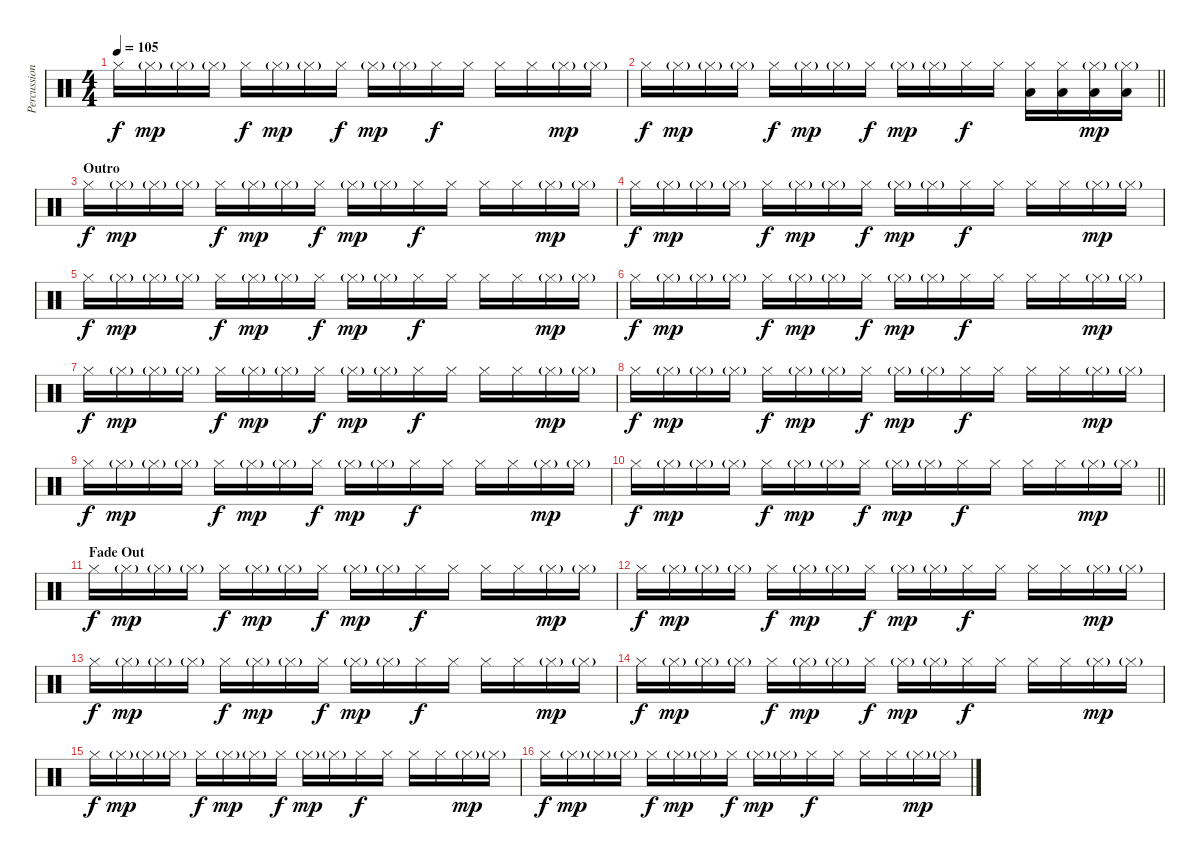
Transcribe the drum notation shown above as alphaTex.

\track ("Percussions and Arrangements" "Percussion") {instrument percussion}
\staff {score}
\articulation defaults
\ts (4 4)
\tempo 105
\clef neutral
\ks c "Hi-Hat (closed)".16{dy f} "Hi-Hat (closed)"{g}.16{dy mp} "Hi-Hat (closed)"{g}.16 "Hi-Hat (closed)"{g}.16 "Hi-Hat (closed)".16{dy f} "Hi-Hat (closed)"{g}.16{dy mp} "Hi-Hat (closed)"{g}.16 "Hi-Hat (closed)".16{dy f} "Hi-Hat (closed)"{g}.16{dy mp} "Hi-Hat (closed)"{g}.16 "Hi-Hat (closed)".16{dy f} "Hi-Hat (closed)".16 "Hi-Hat (closed)".16 "Hi-Hat (closed)".16 "Hi-Hat (closed)"{g}.16{dy mp} "Hi-Hat (closed)"{g}.16
|
\barLineRight lightlight "Hi-Hat (closed)".16{dy f} "Hi-Hat (closed)"{g}.16{dy mp} "Hi-Hat (closed)"{g}.16 "Hi-Hat (closed)"{g}.16 "Hi-Hat (closed)".16{dy f} "Hi-Hat (closed)"{g}.16{dy mp} "Hi-Hat (closed)"{g}.16 "Hi-Hat (closed)".16{dy f} "Hi-Hat (closed)"{g}.16{dy mp} "Hi-Hat (closed)"{g}.16 "Hi-Hat (closed)".16{dy f} "Hi-Hat (closed)".16
("Hi-Hat (closed)" "Low Tom (hit)").16 ("Hi-Hat (closed)" "Low Tom (hit)").16 ("Hi-Hat (closed)"{g} "Low Tom (hit)").16{dy mp} ("Hi-Hat (closed)"{g} "Low Tom (hit)").16 |
\section ("" "Outro")
"Hi-Hat (closed)".16{dy f} "Hi-Hat (closed)"{g}.16{dy mp} "Hi-Hat (closed)"{g}.16 "Hi-Hat (closed)"{g}.16 "Hi-Hat (closed)".16{dy f} "Hi-Hat (closed)"{g}.16{dy mp} "Hi-Hat (closed)"{g}.16 "Hi-Hat (closed)".16{dy f} "Hi-Hat (closed)"{g}.16{dy mp} "Hi-Hat (closed)"{g}.16 "Hi-Hat (closed)".16{dy f} "Hi-Hat (closed)".16 "Hi-Hat (closed)".16 "Hi-Hat (closed)".16 "Hi-Hat (closed)"{g}.16{dy mp} "Hi-Hat (closed)"{g}.16 |
"Hi-Hat (closed)".16{dy f} "Hi-Hat (closed)"{g}.16{dy mp} "Hi-Hat (closed)"{g}.16 "Hi-Hat (closed)"{g}.16 "Hi-Hat (closed)".16{dy f} "Hi-Hat (closed)"{g}.16{dy mp} "Hi-Hat (closed)"{g}.16 "Hi-Hat (closed)".16{dy f} "Hi-Hat (closed)"{g}.16{dy mp} "Hi-Hat (closed)"{g}.16 "Hi-Hat (closed)".16{dy f} "Hi-Hat (closed)".16 "Hi-Hat (closed)".16 "Hi-Hat (closed)".16 "Hi-Hat (closed)"{g}.16{dy mp} "Hi-Hat (closed)"{g}.16 |
"Hi-Hat (closed)".16{dy f} "Hi-Hat (closed)"{g}.16{dy mp} "Hi-Hat (closed)"{g}.16 "Hi-Hat (closed)"{g}.16 "Hi-Hat (closed)".16{dy f} "Hi-Hat (closed)"{g}.16{dy mp} "Hi-Hat (closed)"{g}.16 "Hi-Hat (closed)".16{dy f} "Hi-Hat (closed)"{g}.16{dy mp} "Hi-Hat (closed)"{g}.16 "Hi-Hat (closed)".16{dy f} "Hi-Hat (closed)".16 "Hi-Hat (closed)".16 "Hi-Hat (closed)".16 "Hi-Hat (closed)"{g}.16{dy mp} "Hi-Hat (closed)"{g}.16 |
"Hi-Hat (closed)".16{dy f} "Hi-Hat (closed)"{g}.16{dy mp} "Hi-Hat (closed)"{g}.16 "Hi-Hat (closed)"{g}.16 "Hi-Hat (closed)".16{dy f} "Hi-Hat (closed)"{g}.16{dy mp} "Hi-Hat (closed)"{g}.16 "Hi-Hat (closed)".16{dy f} "Hi-Hat (closed)"{g}.16{dy mp} "Hi-Hat (closed)"{g}.16 "Hi-Hat (closed)".16{dy f} "Hi-Hat (closed)".16 "Hi-Hat (closed)".16 "Hi-Hat (closed)".16 "Hi-Hat (closed)"{g}.16{dy mp} "Hi-Hat (closed)"{g}.16 |
"Hi-Hat (closed)".16{dy f} "Hi-Hat (closed)"{g}.16{dy mp} "Hi-Hat (closed)"{g}.16 "Hi-Hat (closed)"{g}.16 "Hi-Hat (closed)".16{dy f} "Hi-Hat (closed)"{g}.16{dy mp} "Hi-Hat (closed)"{g}.16 "Hi-Hat (closed)".16{dy f} "Hi-Hat (closed)"{g}.16{dy mp} "Hi-Hat (closed)"{g}.16 "Hi-Hat (closed)".16{dy f} "Hi-Hat (closed)".16 "Hi-Hat (closed)".16 "Hi-Hat (closed)".16 "Hi-Hat (closed)"{g}.16{dy mp} "Hi-Hat (closed)"{g}.16 |
"Hi-Hat (closed)".16{dy f} "Hi-Hat (closed)"{g}.16{dy mp} "Hi-Hat (closed)"{g}.16 "Hi-Hat (closed)"{g}.16 "Hi-Hat (closed)".16{dy f} "Hi-Hat (closed)"{g}.16{dy mp} "Hi-Hat (closed)"{g}.16 "Hi-Hat (closed)".16{dy f} "Hi-Hat (closed)"{g}.16{dy mp} "Hi-Hat (closed)"{g}.16 "Hi-Hat (closed)".16{dy f} "Hi-Hat (closed)".16 "Hi-Hat (closed)".16 "Hi-Hat (closed)".16 "Hi-Hat (closed)"{g}.16{dy mp} "Hi-Hat (closed)"{g}.16 |
"Hi-Hat (closed)".16{dy f} "Hi-Hat (closed)"{g}.16{dy mp} "Hi-Hat (closed)"{g}.16 "Hi-Hat (closed)"{g}.16 "Hi-Hat (closed)".16{dy f} "Hi-Hat (closed)"{g}.16{dy mp} "Hi-Hat (closed)"{g}.16 "Hi-Hat (closed)".16{dy f} "Hi-Hat (closed)"{g}.16{dy mp} "Hi-Hat (closed)"{g}.16 "Hi-Hat (closed)".16{dy f} "Hi-Hat (closed)".16 "Hi-Hat (closed)".16 "Hi-Hat (closed)".16 "Hi-Hat (closed)"{g}.16{dy mp} "Hi-Hat (closed)"{g}.16 |
\barLineRight lightlight "Hi-Hat (closed)".16{dy f} "Hi-Hat (closed)"{g}.16{dy mp} "Hi-Hat (closed)"{g}.16 "Hi-Hat (closed)"{g}.16 "Hi-Hat (closed)".16{dy f} "Hi-Hat (closed)"{g}.16{dy mp} "Hi-Hat (closed)"{g}.16 "Hi-Hat (closed)".16{dy f} "Hi-Hat (closed)"{g}.16{dy mp} "Hi-Hat (closed)"{g}.16 "Hi-Hat (closed)".16{dy f} "Hi-Hat (closed)".16 "Hi-Hat (closed)".16 "Hi-Hat (closed)".16 "Hi-Hat (closed)"{g}.16{dy mp} "Hi-Hat (closed)"{g}.16
|
\section ("" "Fade Out")
"Hi-Hat (closed)".16{dy f} "Hi-Hat (closed)"{g}.16{dy mp} "Hi-Hat (closed)"{g}.16 "Hi-Hat (closed)"{g}.16 "Hi-Hat (closed)".16{dy f} "Hi-Hat (closed)"{g}.16{dy mp} "Hi-Hat (closed)"{g}.16 "Hi-Hat (closed)".16{dy f} "Hi-Hat (closed)"{g}.16{dy mp} "Hi-Hat (closed)"{g}.16 "Hi-Hat (closed)".16{dy f} "Hi-Hat (closed)".16 "Hi-Hat (closed)".16 "Hi-Hat (closed)".16 "Hi-Hat (closed)"{g}.16{dy mp} "Hi-Hat (closed)"{g}.16 |
"Hi-Hat (closed)".16{dy f} "Hi-Hat (closed)"{g}.16{dy mp} "Hi-Hat (closed)"{g}.16 "Hi-Hat (closed)"{g}.16 "Hi-Hat (closed)".16{dy f} "Hi-Hat (closed)"{g}.16{dy mp} "Hi-Hat (closed)"{g}.16 "Hi-Hat (closed)".16{dy f} "Hi-Hat (closed)"{g}.16{dy mp} "Hi-Hat (closed)"{g}.16 "Hi-Hat (closed)".16{dy f} "Hi-Hat (closed)".16 "Hi-Hat (closed)".16 "Hi-Hat (closed)".16 "Hi-Hat (closed)"{g}.16{dy mp} "Hi-Hat (closed)"{g}.16 |
"Hi-Hat (closed)".16{dy f} "Hi-Hat (closed)"{g}.16{dy mp} "Hi-Hat (closed)"{g}.16 "Hi-Hat (closed)"{g}.16 "Hi-Hat (closed)".16{dy f} "Hi-Hat (closed)"{g}.16{dy mp} "Hi-Hat (closed)"{g}.16 "Hi-Hat (closed)".16{dy f} "Hi-Hat (closed)"{g}.16{dy mp} "Hi-Hat (closed)"{g}.16 "Hi-Hat (closed)".16{dy f} "Hi-Hat (closed)".16 "Hi-Hat (closed)".16 "Hi-Hat (closed)".16 "Hi-Hat (closed)"{g}.16{dy mp} "Hi-Hat (closed)"{g}.16 |
"Hi-Hat (closed)".16{dy f} "Hi-Hat (closed)"{g}.16{dy mp} "Hi-Hat (closed)"{g}.16 "Hi-Hat (closed)"{g}.16 "Hi-Hat (closed)".16{dy f} "Hi-Hat (closed)"{g}.16{dy mp} "Hi-Hat (closed)"{g}.16 "Hi-Hat (closed)".16{dy f} "Hi-Hat (closed)"{g}.16{dy mp} "Hi-Hat (closed)"{g}.16 "Hi-Hat (closed)".16{dy f} "Hi-Hat (closed)".16 "Hi-Hat (closed)".16 "Hi-Hat (closed)".16 "Hi-Hat (closed)"{g}.16{dy mp} "Hi-Hat (closed)"{g}.16 |
"Hi-Hat (closed)".16{dy f} "Hi-Hat (closed)"{g}.16{dy mp} "Hi-Hat (closed)"{g}.16 "Hi-Hat (closed)"{g}.16 "Hi-Hat (closed)".16{dy f} "Hi-Hat (closed)"{g}.16{dy mp} "Hi-Hat (closed)"{g}.16 "Hi-Hat (closed)".16{dy f} "Hi-Hat (closed)"{g}.16{dy mp} "Hi-Hat (closed)"{g}.16 "Hi-Hat (closed)".16{dy f} "Hi-Hat (closed)".16 "Hi-Hat (closed)".16 "Hi-Hat (closed)".16 "Hi-Hat (closed)"{g}.16{dy mp} "Hi-Hat (closed)"{g}.16 |
"Hi-Hat (closed)".16{dy f} "Hi-Hat (closed)"{g}.16{dy mp} "Hi-Hat (closed)"{g}.16 "Hi-Hat (closed)"{g}.16 "Hi-Hat (closed)".16{dy f} "Hi-Hat (closed)"{g}.16{dy mp} "Hi-Hat (closed)"{g}.16 "Hi-Hat (closed)".16{dy f} "Hi-Hat (closed)"{g}.16{dy mp} "Hi-Hat (closed)"{g}.16 "Hi-Hat (closed)".16{dy f} "Hi-Hat (closed)".16 "Hi-Hat (closed)".16 "Hi-Hat (closed)".16 "Hi-Hat (closed)"{g}.16{dy mp} "Hi-Hat (closed)"{g}.16
